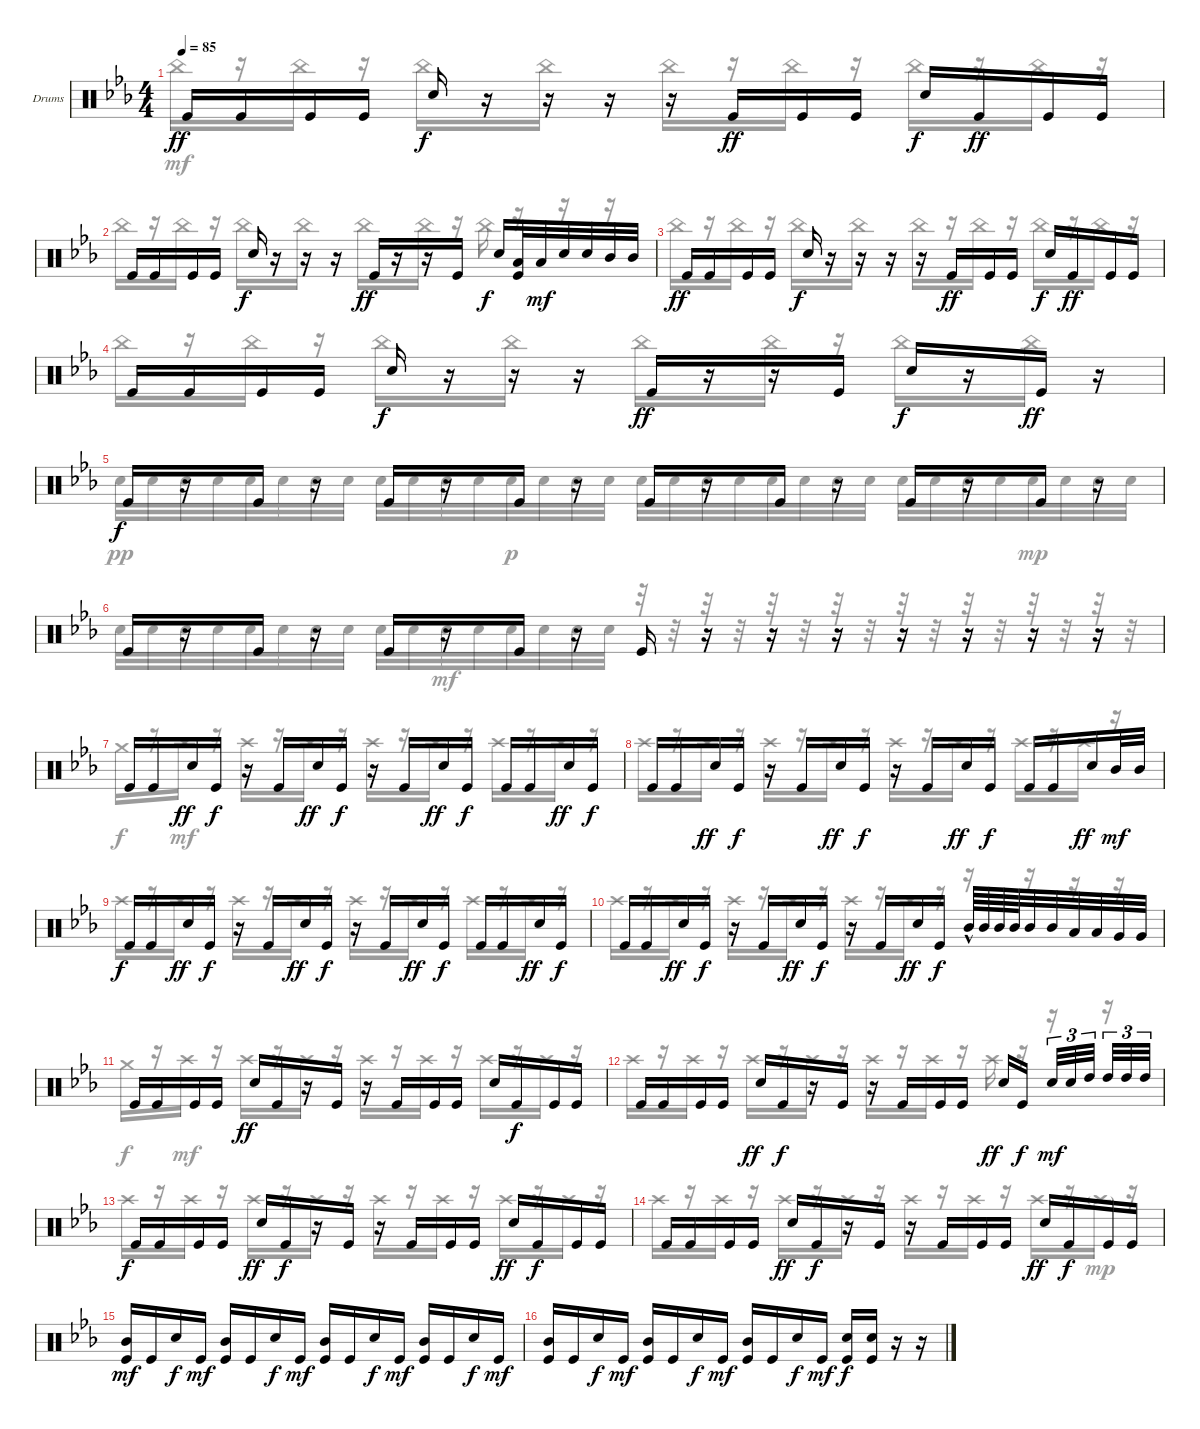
\defaultSystemsLayout 4
\bracketExtendMode groupsimilarinstruments
\firstSystemTrackNameOrientation horizontal
\otherSystemsTrackNameOrientation horizontal
\track ("Drums" "Drums") {instrument percussion}
\staff {score}
\articulation defaults
\voice
\ts (4 4)
\tempo 85
\clef neutral
\ks eb "Kick (hit)".16{dy ff} "Kick (hit)".16 "Kick (hit)".16 "Kick (hit)".16 "Snare (hit) 2".16{dy f}
r.16 r.16 r.16 r.16 "Kick (hit)".16{dy ff} "Kick (hit)".16 "Kick (hit)".16 "Snare (hit) 2".16{dy f} "Kick (hit)".16{dy ff} "Kick (hit)".16 "Kick (hit)".16 |
"Kick (hit)".16 "Kick (hit)".16 "Kick (hit)".16 "Kick (hit)".16 "Snare (hit) 2".16{dy f} r.16 r.16 r.16 "Kick (hit)".16{dy ff} r.16 r.16 "Kick (hit)".16 "Snare (hit) 2".16{dy f} ("Low Tom (hit)" "Kick (hit)").32 "Low Tom (hit)".32{dy mf} "Snare (hit) 2".32 "Snare (hit) 2".32 "Mid Tom (hit)".32 "Mid Tom (hit)".32 |
"Kick (hit)".16{dy ff} "Kick (hit)".16 "Kick (hit)".16 "Kick (hit)".16 "Snare (hit) 2".16{dy f} r.16 r.16 r.16 r.16 "Kick (hit)".16{dy ff} "Kick (hit)".16 "Kick (hit)".16 "Snare (hit) 2".16{dy f} "Kick (hit)".16{dy ff} "Kick (hit)".16 "Kick (hit)".16 |
"Kick (hit)".16 "Kick (hit)".16 "Kick (hit)".16 "Kick (hit)".16 "Snare (hit) 2".16{dy f} r.16 r.16 r.16 "Kick (hit)".16{dy ff} r.16 r.16 "Kick (hit)".16 "Snare (hit) 2".16{dy f} r.16 "Kick (hit)".16{dy ff} r.16 |
"Kick (hit)".16{dy f} r.16 "Kick (hit)".16 r.16 "Kick (hit)".16 r.16 "Kick (hit)".16 r.16 "Kick (hit)".16 r.16 "Kick (hit)".16 r.16 "Kick (hit)".16 r.16 "Kick (hit)".16 r.16 |
"Kick (hit)".16 r.16 "Kick (hit)".16 r.16 "Kick (hit)".16 r.16 "Kick (hit)".16 r.16 "Kick (hit)".16 r.16 r.16 r.16 r.16 r.16 r.16 r.16 |
"Kick (hit)".16 "Kick (hit)".16 "Snare (hit) 2".16{dy ff} "Kick (hit)".16{dy f} r.16 "Kick (hit)".16 "Snare (hit) 2".16{dy ff} "Kick (hit)".16{dy f} r.16 "Kick (hit)".16 "Snare (hit) 2".16{dy ff} "Kick (hit)".16{dy f} "Kick (hit)".16 "Kick (hit)".16 "Snare (hit) 2".16{dy ff} "Kick (hit)".16{dy f} |
"Kick (hit)".16 "Kick (hit)".16 "Snare (hit) 2".16{dy ff} "Kick (hit)".16{dy f} r.16 "Kick (hit)".16 "Snare (hit) 2".16{dy ff} "Kick (hit)".16{dy f} r.16 "Kick (hit)".16 "Snare (hit) 2".16{dy ff} "Kick (hit)".16{dy f} "Kick (hit)".16 "Kick (hit)".16 "Snare (hit) 2".16{dy ff} "Mid Tom (hit)".32{dy mf} "Mid Tom (hit)".32 |
"Kick (hit)".16{dy f} "Kick (hit)".16 "Snare (hit) 2".16{dy ff} "Kick (hit)".16{dy f} r.16 "Kick (hit)".16 "Snare (hit) 2".16{dy ff} "Kick (hit)".16{dy f} r.16 "Kick (hit)".16 "Snare (hit) 2".16{dy ff} "Kick (hit)".16{dy f} "Kick (hit)".16 "Kick (hit)".16 "Snare (hit) 2".16{dy ff} "Kick (hit)".16{dy f} |
"Kick (hit)".16 "Kick (hit)".16 "Snare (hit) 2".16{dy ff} "Kick (hit)".16{dy f} r.16 "Kick (hit)".16 "Snare (hit) 2".16{dy ff} "Kick (hit)".16{dy f} r.16 "Kick (hit)".16 "Snare (hit) 2".16{dy ff} "Kick (hit)".16{dy f} "Mid Tom (hit)"{hac}.64 "Mid Tom (hit)".64 "Mid Tom (hit)".64 "Mid Tom (hit)".64 "Mid Tom (hit)".32 "Mid Tom (hit)".32 "Low Tom (hit)".32 "Low Tom (hit)".32 "Very Low Tom (hit)".32 "Very Low Tom (hit)".32 |
"Kick (hit)".16 "Kick (hit)".16 "Kick (hit)".16 "Kick (hit)".16 "Snare (hit) 2".16{dy ff} "Kick (hit)".16 r.16 "Kick (hit)".16 r.16 "Kick (hit)".16 "Kick (hit)".16 "Kick (hit)".16 "Snare (hit) 2".16 "Kick (hit)".16{dy f} "Kick (hit)".16 "Kick (hit)".16 |
"Kick (hit)".16 "Kick (hit)".16 "Kick (hit)".16 "Kick (hit)".16 "Snare (hit) 2".16{dy ff} "Kick (hit)".16{dy f} r.16 "Kick (hit)".16 r.16 "Kick (hit)".16 "Kick (hit)".16 "Kick (hit)".16 "Snare (hit) 2".16{dy ff} "Kick (hit)".16{dy f} "Snare (hit) 2".32{tu (3 2) dy mf} "Snare (hit) 2".32{tu (3 2)} "High Tom (hit)".32{tu (3 2)} "High Tom (hit)".32{tu (3 2)} "High Tom (hit)".32{tu (3 2)} "High Tom (hit)".32{tu (3 2)} |
"Kick (hit)".16{dy f} "Kick (hit)".16 "Kick (hit)".16 "Kick (hit)".16 "Snare (hit) 2".16{dy ff} "Kick (hit)".16{dy f} r.16 "Kick (hit)".16 r.16 "Kick (hit)".16 "Kick (hit)".16 "Kick (hit)".16 "Snare (hit) 2".16{dy ff} "Kick (hit)".16{dy f} "Kick (hit)".16 "Kick (hit)".16 |
"Kick (hit)".16 "Kick (hit)".16 "Kick (hit)".16 "Kick (hit)".16 "Snare (hit) 2".16{dy ff} "Kick (hit)".16{dy f} r.16 "Kick (hit)".16 r.16 "Kick (hit)".16 "Kick (hit)".16 "Kick (hit)".16 "Snare (hit) 2".16{dy ff} "Kick (hit)".16{dy f} "Kick (hit)".16 "Kick (hit)".16 |
("Mid Tom (hit)" "Kick (hit)").16{dy mf} "Kick (hit)".16 "Snare (hit) 2".16{dy f} "Kick (hit)".16{dy mf} ("Kick (hit)" "Mid Tom (hit)").16 "Kick (hit)".16 "Snare (hit) 2".16{dy f} "Kick (hit)".16{dy mf} ("Kick (hit)" "Mid Tom (hit)").16 "Kick (hit)".16 "Snare (hit) 2".16{dy f} "Kick (hit)".16{dy mf} ("Kick (hit)" "Mid Tom (hit)").16 "Kick (hit)".16 "Snare (hit) 2".16{dy f} "Kick (hit)".16{dy mf} |
("Kick (hit)" "Mid Tom (hit)").16 "Kick (hit)".16 "Snare (hit) 2".16{dy f} "Kick (hit)".16{dy mf} ("Kick (hit)" "Mid Tom (hit)").16 "Kick (hit)".16 "Snare (hit) 2".16{dy f} "Kick (hit)".16{dy mf} ("Kick (hit)" "Mid Tom (hit)").16 "Kick (hit)".16 "Snare (hit) 2".16{dy f} "Kick (hit)".16{dy mf} ("Kick (hit)" "Snare (hit) 2").16{dy f} ("Kick (hit)" "Snare (hit) 2").16 r.16 r.16
\voice
\clef neutral
\ottava regular
\simile none
\ks eb "China (hit)".16{dy mf}
r.16 "China (hit)".16 r.16 "China (hit)".16 r.16 "China (hit)".16 r.16 "China (hit)".16 r.16 "China (hit)".16 r.16 "China (hit)".16 r.16 "China (hit)".16 r.16 |
"China (hit)".16 r.16 "China (hit)".16 r.16 "China (hit)".16 r.16 "China (hit)".16 r.16 "China (hit)".16 r.16 "China (hit)".16 r.16 "China (hit)".16 r.16 r.16 r.16 |
"China (hit)".16 r.16 "China (hit)".16 r.16 "China (hit)".16 r.16 "China (hit)".16 r.16 "China (hit)".16 r.16 "China (hit)".16 r.16 "China (hit)".16 r.16 "China (hit)".16 r.16 |
"China (hit)".16 r.16 "China (hit)".16 r.16 "China (hit)".16 r.16 "China (hit)".16 r.16 "China (hit)".16 r.16 "China (hit)".16 r.16 "China (hit)".16 r.16 "China (hit)".16 r.16 |
"Snare (hit) 2".32{dy pp} "Snare (hit) 2".32 "Snare (hit) 2".32 "Snare (hit) 2".32 "Snare (hit) 2".32 "Snare (hit) 2".32 "Snare (hit) 2".32 "Snare (hit) 2".32 "Snare (hit) 2".32 "Snare (hit) 2".32 "Snare (hit) 2".32 "Snare (hit) 2".32 "Snare (hit) 2".32{dy p} "Snare (hit) 2".32 "Snare (hit) 2".32 "Snare (hit) 2".32 "Snare (hit) 2".32 "Snare (hit) 2".32 "Snare (hit) 2".32 "Snare (hit) 2".32 "Snare (hit) 2".32 "Snare (hit) 2".32 "Snare (hit) 2".32 "Snare (hit) 2".32 "Snare (hit) 2".32 "Snare (hit) 2".32 "Snare (hit) 2".32 "Snare (hit) 2".32 "Snare (hit) 2".32{dy mp} "Snare (hit) 2".32 "Snare (hit) 2".32 "Snare (hit) 2".32 |
"Snare (hit) 2".32 "Snare (hit) 2".32 "Snare (hit) 2".32 "Snare (hit) 2".32 "Snare (hit) 2".32 "Snare (hit) 2".32 "Snare (hit) 2".32 "Snare (hit) 2".32 "Snare (hit) 2".32 "Snare (hit) 2".32 "Snare (hit) 2".32{dy mf} "Snare (hit) 2".32 "Snare (hit) 2".32 "Snare (hit) 2".32 "Snare (hit) 2".32 "Snare (hit) 2".32 r.32 r.32 r.32 r.32 r.32 r.32 r.32 r.32 r.32 r.32 r.32 r.32 r.32 r.32 r.32 r.32 |
"Crash medium (hit)".16{dy f} r.16 "Crash high (hit)".16{dy mf} r.16 "Crash high (hit)".16 r.16 "Crash high (hit)".16 r.16 "Crash high (hit)".16 r.16 "Crash high (hit)".16 r.16 "Crash high (hit)".16 r.16 "Crash high (hit)".16 r.16 |
"Crash high (hit)".16 r.16 "Crash high (hit)".16 r.16 "Crash high (hit)".16 r.16 "Crash high (hit)".16 r.16 "Crash high (hit)".16 r.16 "Crash high (hit)".16 r.16 "Crash high (hit)".16 r.16 "Crash high (hit)".16 r.16 |
"Crash high (hit)".16 r.16 "Crash high (hit)".16 r.16 "Crash high (hit)".16 r.16 "Crash high (hit)".16 r.16 "Crash high (hit)".16 r.16 "Crash high (hit)".16 r.16 "Crash high (hit)".16 r.16 "Crash high (hit)".16 r.16 |
"Crash high (hit)".16 r.16 "Crash high (hit)".16 r.16 "Crash high (hit)".16 r.16 "Crash high (hit)".16 r.16 "Crash high (hit)".16 r.16 "Crash high (hit)".16 r.16 r.16 r.16 r.16 r.16 |
"Crash medium (hit)".16{dy f} r.16 "Crash high (hit)".16{dy mf} r.16 "Crash high (hit)".16 r.16 "Crash high (hit)".16 r.16 "Crash high (hit)".16 r.16 "Crash high (hit)".16 r.16 "Crash high (hit)".16 r.16 "Crash high (hit)".16 r.16 |
"Crash high (hit)".16 r.16 "Crash high (hit)".16 r.16 "Crash high (hit)".16 r.16 "Crash high (hit)".16 r.16 "Crash high (hit)".16 r.16 "Crash high (hit)".16 r.16 "Crash high (hit)".16 r.16 r.16 r.16 |
"Crash high (hit)".16 r.16 "Crash high (hit)".16 r.16 "Crash high (hit)".16 r.16 "Crash high (hit)".16 r.16 "Crash high (hit)".16 r.16 "Crash high (hit)".16 r.16 "Crash high (hit)".16 r.16 "Crash high (hit)".16 r.16 |
"Crash high (hit)".16 r.16 "Crash high (hit)".16 r.16 "Crash high (hit)".16 r.16 "Crash high (hit)".16 r.16 "Crash high (hit)".16 r.16 "Crash high (hit)".16 r.16 "Crash high (hit)".16 r.16 "Crash high (hit)"{g}.16{dy mp} r.16 |
|
